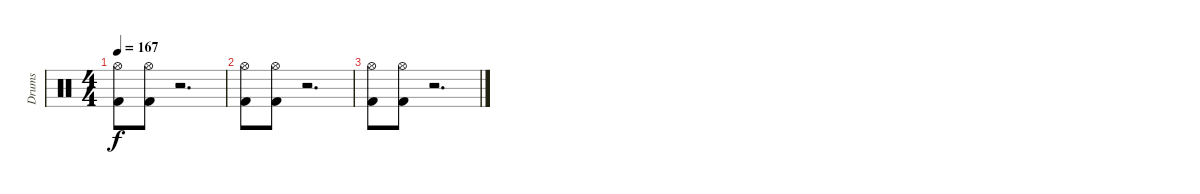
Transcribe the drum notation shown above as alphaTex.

\track ("Drums" "Drums") {instrument percussion}
\staff {score}
\articulation defaults
\ts (4 4)
\tempo 167
\clef neutral
\ks c
("Hi-Hat (open)" "Kick (hit) 2").8{dy f} ("Hi-Hat (open)" "Kick (hit) 2").8{volume 0} r.2{d} |
("Hi-Hat (open)" "Kick (hit) 2").8 ("Hi-Hat (open)" "Kick (hit) 2").8{volume 0} r.2{d} |
("Hi-Hat (open)" "Kick (hit) 2").8 ("Hi-Hat (open)" "Kick (hit) 2").8{volume 0} r.2{d}
